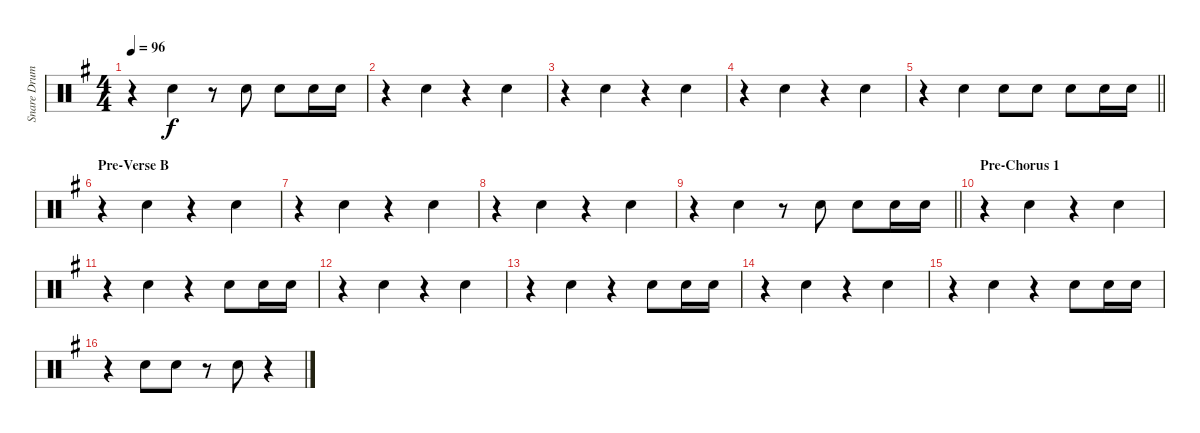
\track ("Snare Drum - reverb" "Snare Drum") {instrument percussion}
\staff {score}
\articulation defaults
\ts (4 4)
\tempo 96
\clef neutral
\ks g
r.4{dy f beam merge} "Snare (hit) 2".4 r.8 "Snare (hit) 2".8 "Snare (hit) 2".8 "Snare (hit) 2".16 "Snare (hit) 2".16 |
r.4{beam merge} "Snare (hit) 2".4 r.4{beam merge} "Snare (hit) 2".4 |
r.4{beam merge} "Snare (hit) 2".4 r.4{beam merge} "Snare (hit) 2".4 |
r.4{beam merge} "Snare (hit) 2".4 r.4{beam merge} "Snare (hit) 2".4 |
\barLineRight lightlight
r.4{beam merge} "Snare (hit) 2".4 "Snare (hit) 2".8 "Snare (hit) 2".8 "Snare (hit) 2".8 "Snare (hit) 2".16 "Snare (hit) 2".16 |
\section ("" "Pre-Verse B")
r.4{beam merge} "Snare (hit) 2".4 r.4{beam merge} "Snare (hit) 2".4 |
r.4{beam merge} "Snare (hit) 2".4 r.4{beam merge} "Snare (hit) 2".4 |
r.4{beam merge} "Snare (hit) 2".4 r.4{beam merge} "Snare (hit) 2".4 |
\barLineRight lightlight
r.4{beam merge} "Snare (hit) 2".4 r.8 "Snare (hit) 2".8 "Snare (hit) 2".8 "Snare (hit) 2".16 "Snare (hit) 2".16 |
\section ("" "Pre-Chorus 1")
r.4{beam merge} "Snare (hit) 2".4 r.4{beam merge} "Snare (hit) 2".4 |
r.4{beam merge} "Snare (hit) 2".4 r.4 "Snare (hit) 2".8 "Snare (hit) 2".16 "Snare (hit) 2".16 |
r.4{beam merge} "Snare (hit) 2".4 r.4{beam merge} "Snare (hit) 2".4 |
r.4{beam merge} "Snare (hit) 2".4 r.4 "Snare (hit) 2".8 "Snare (hit) 2".16 "Snare (hit) 2".16 |
r.4{beam merge} "Snare (hit) 2".4 r.4{beam merge} "Snare (hit) 2".4 |
r.4{beam merge} "Snare (hit) 2".4 r.4 "Snare (hit) 2".8 "Snare (hit) 2".16 "Snare (hit) 2".16 |
r.4 "Snare (hit) 2".8 "Snare (hit) 2".8 r.8 "Snare (hit) 2".8 r.4
